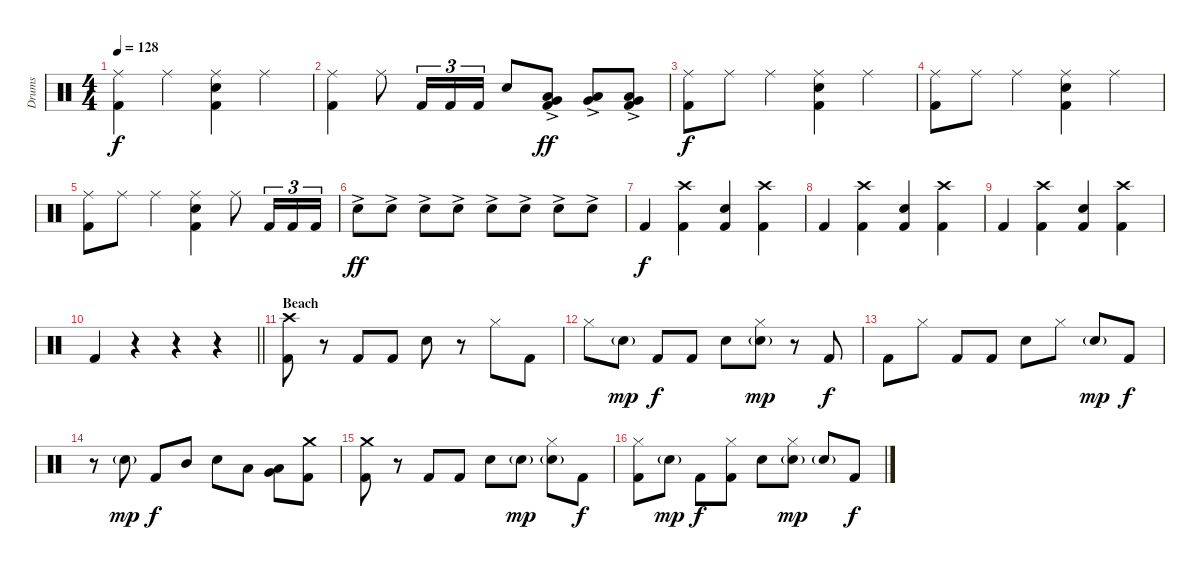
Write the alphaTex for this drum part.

\track ("Drums" "Drums") {instrument percussion}
\staff {score}
\articulation defaults
\ts (4 4)
\tempo 128
\clef neutral
\ks c
("Ride (middle)" "Kick (hit) 2").4{dy f} "Ride (middle)".4 ("Ride (middle)" "Electric Snare (hit)" "Kick (hit) 2").4 "Ride (middle)".4 |
("Ride (middle)" "Kick (hit) 2").4 "Ride (middle)".8 "Kick (hit) 2".16{tu (3 2)} "Kick (hit) 2".16{tu (3 2)} "Kick (hit) 2".16{tu (3 2)} "Electric Snare (hit)".8 ("Low Tom (hit)"{ac} "Very Low Tom (hit)"{ac} "Kick (hit) 2").8{dy ff} ("Low Tom (hit)"{ac} "Very Low Tom (hit)"{ac}).8 ("Low Tom (hit)"{ac} "Very Low Tom (hit)"{ac} "Kick (hit) 2").8 |
("Ride (middle)" "Kick (hit) 2").8{dy f} "Ride (middle)".8 "Ride (middle)".4 ("Ride (middle)" "Electric Snare (hit)" "Kick (hit) 2").4 "Ride (middle)".4 |
("Ride (middle)" "Kick (hit) 2").8 "Ride (middle)".8 "Ride (middle)".4 ("Ride (middle)" "Electric Snare (hit)" "Kick (hit) 2").4 "Ride (middle)".4 |
("Ride (middle)" "Kick (hit) 2").8 "Ride (middle)".8 "Ride (middle)".4 ("Ride (middle)" "Electric Snare (hit)" "Kick (hit) 2").4 "Ride (middle)".8 "Kick (hit) 2".16{tu (3 2)} "Kick (hit) 2".16{tu (3 2)} "Kick (hit) 2".16{tu (3 2)} |
"Electric Snare (hit)"{ac}.8{dy ff} "Electric Snare (hit)"{ac}.8 "Electric Snare (hit)"{ac}.8 "Electric Snare (hit)"{ac}.8 "Electric Snare (hit)"{ac}.8 "Electric Snare (hit)"{ac}.8 "Electric Snare (hit)"{ac}.8 "Electric Snare (hit)"{ac}.8 |
"Kick (hit) 2".4{dy f} ("Crash high (hit)" "Kick (hit) 2").4 ("Electric Snare (hit)" "Kick (hit) 2").4 ("Crash high (hit)" "Kick (hit) 2").4 |
"Kick (hit) 2".4 ("Crash high (hit)" "Kick (hit) 2").4 ("Electric Snare (hit)" "Kick (hit) 2").4 ("Crash high (hit)" "Kick (hit) 2").4 |
"Kick (hit) 2".4 ("Crash high (hit)" "Kick (hit) 2").4 ("Electric Snare (hit)" "Kick (hit) 2").4 ("Crash high (hit)" "Kick (hit) 2").4 |
\barLineRight lightlight "Kick (hit) 2".4
r.4 r.4 r.4 |
\section ("" "Beach")
("Crash high (hit)" "Kick (hit) 2").8 r.8 "Kick (hit) 2".8 "Kick (hit) 2".8 "Electric Snare (hit)".8 r.8 "Hi-Hat (closed)".8 "Kick (hit) 2".8 |
"Hi-Hat (closed)".8 "Electric Snare (hit)"{g}.8{dy mp} "Kick (hit) 2".8{dy f} "Kick (hit) 2".8 "Electric Snare (hit)".8 ("Hi-Hat (closed)" "Electric Snare (hit)"{g}).8{dy mp} r.8 "Kick (hit) 2".8{dy f} |
"Kick (hit) 2".8 "Hi-Hat (closed)".8 "Kick (hit) 2".8 "Kick (hit) 2".8 "Electric Snare (hit)".8 "Hi-Hat (closed)".8 "Electric Snare (hit)"{g}.8{dy mp} "Kick (hit) 2".8{dy f} |
r.8 "Electric Snare (hit)"{g}.8{dy mp} "Kick (hit) 2".8{dy f} "Mid Tom (hit)".8 "Electric Snare (hit)".8 "Low Tom (hit)".8 ("Very Low Tom (hit)" "Low Tom (hit)").8 ("Crash medium (hit)" "Kick (hit) 2").8 |
("Crash medium (hit)" "Kick (hit) 2").8 r.8 "Kick (hit) 2".8 "Kick (hit) 2".8 "Electric Snare (hit)".8 "Electric Snare (hit)"{g}.8{dy mp} ("Hi-Hat (closed)" "Electric Snare (hit)"{g}).8 "Kick (hit) 2".8{dy f} |
("Hi-Hat (closed)" "Kick (hit) 2").8 "Electric Snare (hit)"{g}.8{dy mp} "Kick (hit) 2".8{dy f} ("Hi-Hat (closed)" "Kick (hit) 2").8 "Electric Snare (hit)".8 ("Hi-Hat (closed)" "Electric Snare (hit)"{g}).8{dy mp} "Electric Snare (hit)"{g}.8 "Kick (hit) 2".8{dy f}
